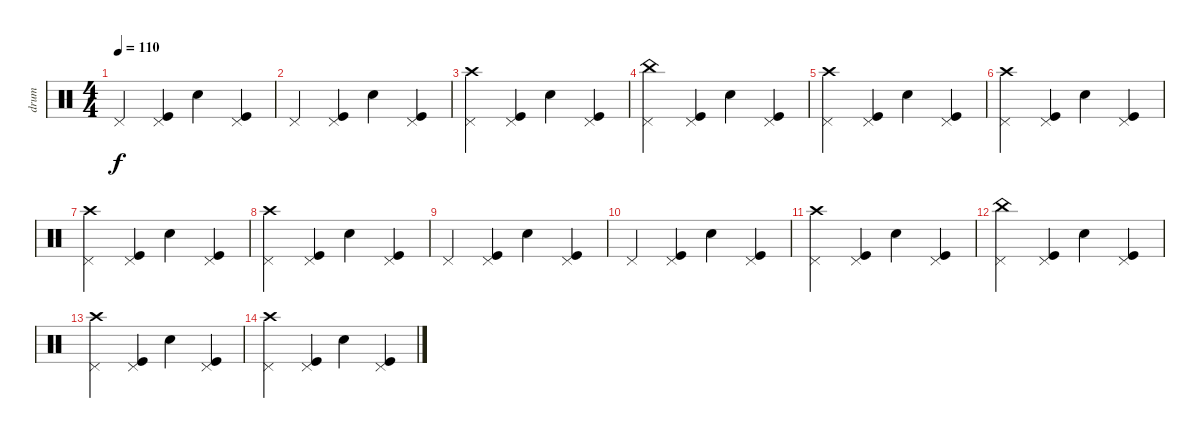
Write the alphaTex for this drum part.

\track ("drum" "drum") {instrument percussion}
\staff {score}
\articulation defaults
\ts (4 4)
\tempo 110
\clef neutral
\ks c "Pedal Hi-Hat (hit)".4{dy f}
("Pedal Hi-Hat (hit)" "Kick (hit)").4 "Electric Snare (hit)".4 ("Pedal Hi-Hat (hit)" "Kick (hit)").4 |
"Pedal Hi-Hat (hit)".4 ("Pedal Hi-Hat (hit)" "Kick (hit)").4 "Electric Snare (hit)".4 ("Pedal Hi-Hat (hit)" "Kick (hit)").4 |
("Pedal Hi-Hat (hit)" "Crash high (hit)").4 ("Pedal Hi-Hat (hit)" "Kick (hit)").4 "Electric Snare (hit)".4 ("Pedal Hi-Hat (hit)" "Kick (hit)").4 |
("Pedal Hi-Hat (hit)" "China (hit)").4 ("Pedal Hi-Hat (hit)" "Kick (hit)").4 "Electric Snare (hit)".4 ("Pedal Hi-Hat (hit)" "Kick (hit)").4 |
("Pedal Hi-Hat (hit)" "Crash high (hit)").4 ("Pedal Hi-Hat (hit)" "Kick (hit)").4 "Electric Snare (hit)".4 ("Pedal Hi-Hat (hit)" "Kick (hit)").4 |
("Pedal Hi-Hat (hit)" "Crash high (hit)").4 ("Pedal Hi-Hat (hit)" "Kick (hit)").4 "Electric Snare (hit)".4 ("Pedal Hi-Hat (hit)" "Kick (hit)").4 |
("Pedal Hi-Hat (hit)" "Crash high (hit)").4 ("Pedal Hi-Hat (hit)" "Kick (hit)").4 "Electric Snare (hit)".4 ("Pedal Hi-Hat (hit)" "Kick (hit)").4 |
("Pedal Hi-Hat (hit)" "Crash high (hit)").4 ("Pedal Hi-Hat (hit)" "Kick (hit)").4 "Electric Snare (hit)".4 ("Pedal Hi-Hat (hit)" "Kick (hit)").4 |
"Pedal Hi-Hat (hit)".4 ("Pedal Hi-Hat (hit)" "Kick (hit)").4 "Electric Snare (hit)".4 ("Pedal Hi-Hat (hit)" "Kick (hit)").4 |
"Pedal Hi-Hat (hit)".4 ("Pedal Hi-Hat (hit)" "Kick (hit)").4 "Electric Snare (hit)".4 ("Pedal Hi-Hat (hit)" "Kick (hit)").4 |
("Pedal Hi-Hat (hit)" "Crash high (hit)").4 ("Pedal Hi-Hat (hit)" "Kick (hit)").4 "Electric Snare (hit)".4 ("Pedal Hi-Hat (hit)" "Kick (hit)").4 |
("Pedal Hi-Hat (hit)" "China (hit)").4 ("Pedal Hi-Hat (hit)" "Kick (hit)").4 "Electric Snare (hit)".4 ("Pedal Hi-Hat (hit)" "Kick (hit)").4 |
("Pedal Hi-Hat (hit)" "Crash high (hit)").4 ("Pedal Hi-Hat (hit)" "Kick (hit)").4 "Electric Snare (hit)".4 ("Pedal Hi-Hat (hit)" "Kick (hit)").4 |
("Pedal Hi-Hat (hit)" "Crash high (hit)").4 ("Pedal Hi-Hat (hit)" "Kick (hit)").4 "Electric Snare (hit)".4 ("Pedal Hi-Hat (hit)" "Kick (hit)").4
